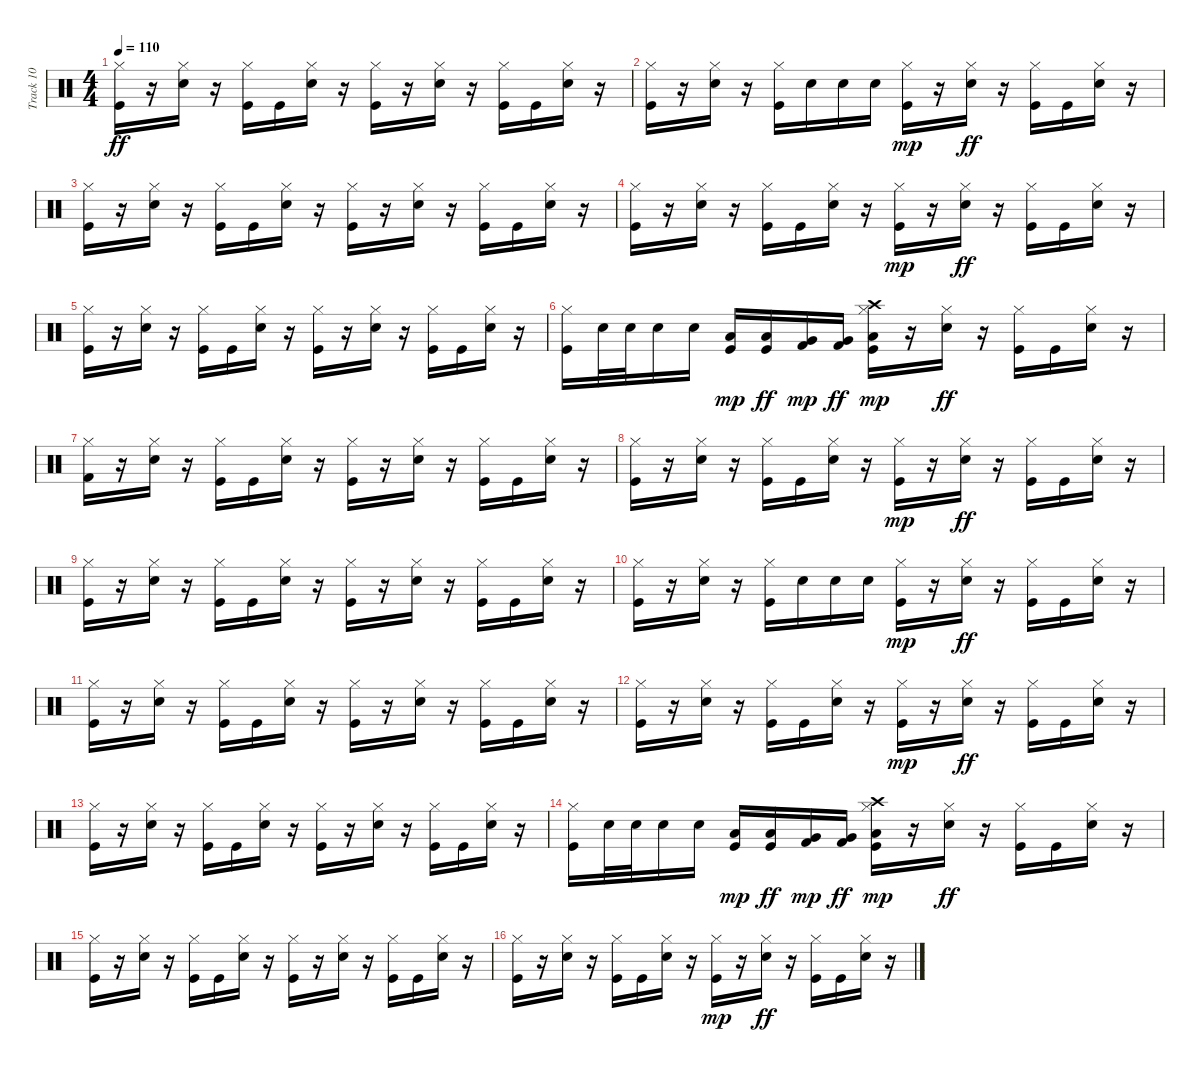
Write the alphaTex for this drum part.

\track ("Track 10" "Track 10") {instrument percussion}
\staff {score}
\articulation defaults
\ts (4 4)
\tempo 110
\clef neutral
\ks c
("Kick (hit)" "Hi-Hat (closed)").16{dy ff} r.16 ("Electric Snare (hit)" "Hi-Hat (closed)").16 r.16 ("Kick (hit)" "Hi-Hat (closed)").16 "Kick (hit)".16 ("Electric Snare (hit)" "Hi-Hat (closed)").16 r.16 ("Kick (hit)" "Hi-Hat (closed)").16 r.16 ("Electric Snare (hit)" "Hi-Hat (closed)").16 r.16 ("Kick (hit)" "Hi-Hat (closed)").16 "Kick (hit)".16 ("Electric Snare (hit)" "Hi-Hat (closed)").16 r.16 |
("Kick (hit)" "Hi-Hat (closed)").16 r.16 ("Electric Snare (hit)" "Hi-Hat (closed)").16 r.16 ("Kick (hit)" "Hi-Hat (closed)").16 "Electric Snare (hit)".16 "Electric Snare (hit)".16 "Electric Snare (hit)".16 ("Kick (hit)" "Hi-Hat (closed)").16{dy mp} r.16 ("Electric Snare (hit)" "Hi-Hat (closed)").16{dy ff} r.16 ("Kick (hit)" "Hi-Hat (closed)").16 "Kick (hit)".16 ("Electric Snare (hit)" "Hi-Hat (closed)").16 r.16 |
("Kick (hit)" "Hi-Hat (closed)").16 r.16 ("Electric Snare (hit)" "Hi-Hat (closed)").16 r.16 ("Kick (hit)" "Hi-Hat (closed)").16 "Kick (hit)".16 ("Electric Snare (hit)" "Hi-Hat (closed)").16 r.16 ("Kick (hit)" "Hi-Hat (closed)").16 r.16 ("Electric Snare (hit)" "Hi-Hat (closed)").16 r.16 ("Kick (hit)" "Hi-Hat (closed)").16 "Kick (hit)".16 ("Electric Snare (hit)" "Hi-Hat (closed)").16 r.16 |
("Kick (hit)" "Hi-Hat (closed)").16 r.16 ("Electric Snare (hit)" "Hi-Hat (closed)").16 r.16 ("Kick (hit)" "Hi-Hat (closed)").16 "Kick (hit)".16 ("Electric Snare (hit)" "Hi-Hat (closed)").16 r.16 ("Kick (hit)" "Hi-Hat (closed)").16{dy mp} r.16 ("Electric Snare (hit)" "Hi-Hat (closed)").16{dy ff} r.16 ("Kick (hit)" "Hi-Hat (closed)").16 "Kick (hit)".16 ("Electric Snare (hit)" "Hi-Hat (closed)").16 r.16 |
("Kick (hit)" "Hi-Hat (closed)").16 r.16 ("Electric Snare (hit)" "Hi-Hat (closed)").16 r.16 ("Kick (hit)" "Hi-Hat (closed)").16 "Kick (hit)".16 ("Electric Snare (hit)" "Hi-Hat (closed)").16 r.16 ("Kick (hit)" "Hi-Hat (closed)").16 r.16 ("Electric Snare (hit)" "Hi-Hat (closed)").16 r.16 ("Kick (hit)" "Hi-Hat (closed)").16 "Kick (hit)".16 ("Electric Snare (hit)" "Hi-Hat (closed)").16 r.16 |
("Kick (hit)" "Hi-Hat (closed)").16 "Electric Snare (hit)".32 "Electric Snare (hit)".32 "Electric Snare (hit)".16 "Electric Snare (hit)".16 ("Low Tom (hit)" "Kick (hit)").16{dy mp} ("Low Tom (hit)" "Kick (hit)").16{dy ff} ("Very Low Tom (hit)" "Kick (hit) 2").16{dy mp} ("Very Low Tom (hit)" "Kick (hit) 2").16{dy ff} ("Kick (hit)" "Crash high (hit)" "Low Floor Tom (hit)" "Hi-Hat (closed)").16{dy mp} r.16 ("Electric Snare (hit)" "Hi-Hat (closed)").16{dy ff} r.16 ("Hi-Hat (closed)" "Kick (hit)").16 "Kick (hit)".16 ("Electric Snare (hit)" "Hi-Hat (closed)").16 r.16 |
("Kick (hit) 2" "Hi-Hat (closed)").16 r.16 ("Electric Snare (hit)" "Hi-Hat (closed)").16 r.16 ("Kick (hit)" "Hi-Hat (closed)").16 "Kick (hit)".16 ("Electric Snare (hit)" "Hi-Hat (closed)").16 r.16 ("Kick (hit)" "Hi-Hat (closed)").16 r.16 ("Electric Snare (hit)" "Hi-Hat (closed)").16 r.16 ("Kick (hit)" "Hi-Hat (closed)").16 "Kick (hit)".16 ("Electric Snare (hit)" "Hi-Hat (closed)").16 r.16 |
("Kick (hit)" "Hi-Hat (closed)").16 r.16 ("Electric Snare (hit)" "Hi-Hat (closed)").16 r.16 ("Kick (hit)" "Hi-Hat (closed)").16 "Kick (hit)".16 ("Electric Snare (hit)" "Hi-Hat (closed)").16 r.16 ("Kick (hit)" "Hi-Hat (closed)").16{dy mp} r.16 ("Electric Snare (hit)" "Hi-Hat (closed)").16{dy ff} r.16 ("Kick (hit)" "Hi-Hat (closed)").16 "Kick (hit)".16 ("Electric Snare (hit)" "Hi-Hat (closed)").16 r.16 |
("Kick (hit)" "Hi-Hat (closed)").16 r.16 ("Electric Snare (hit)" "Hi-Hat (closed)").16 r.16 ("Kick (hit)" "Hi-Hat (closed)").16 "Kick (hit)".16 ("Electric Snare (hit)" "Hi-Hat (closed)").16 r.16 ("Kick (hit)" "Hi-Hat (closed)").16 r.16 ("Electric Snare (hit)" "Hi-Hat (closed)").16 r.16 ("Kick (hit)" "Hi-Hat (closed)").16 "Kick (hit)".16 ("Electric Snare (hit)" "Hi-Hat (closed)").16 r.16 |
("Kick (hit)" "Hi-Hat (closed)").16 r.16 ("Electric Snare (hit)" "Hi-Hat (closed)").16 r.16 ("Kick (hit)" "Hi-Hat (closed)").16 "Electric Snare (hit)".16 "Electric Snare (hit)".16 "Electric Snare (hit)".16 ("Kick (hit)" "Hi-Hat (closed)").16{dy mp} r.16 ("Electric Snare (hit)" "Hi-Hat (closed)").16{dy ff} r.16 ("Kick (hit)" "Hi-Hat (closed)").16 "Kick (hit)".16 ("Electric Snare (hit)" "Hi-Hat (closed)").16 r.16 |
("Kick (hit)" "Hi-Hat (closed)").16 r.16 ("Electric Snare (hit)" "Hi-Hat (closed)").16 r.16 ("Kick (hit)" "Hi-Hat (closed)").16 "Kick (hit)".16 ("Electric Snare (hit)" "Hi-Hat (closed)").16 r.16 ("Kick (hit)" "Hi-Hat (closed)").16 r.16 ("Electric Snare (hit)" "Hi-Hat (closed)").16 r.16 ("Kick (hit)" "Hi-Hat (closed)").16 "Kick (hit)".16 ("Electric Snare (hit)" "Hi-Hat (closed)").16 r.16 |
("Kick (hit)" "Hi-Hat (closed)").16 r.16 ("Electric Snare (hit)" "Hi-Hat (closed)").16 r.16 ("Kick (hit)" "Hi-Hat (closed)").16 "Kick (hit)".16 ("Electric Snare (hit)" "Hi-Hat (closed)").16 r.16 ("Kick (hit)" "Hi-Hat (closed)").16{dy mp} r.16 ("Electric Snare (hit)" "Hi-Hat (closed)").16{dy ff} r.16 ("Kick (hit)" "Hi-Hat (closed)").16 "Kick (hit)".16 ("Electric Snare (hit)" "Hi-Hat (closed)").16 r.16 |
("Kick (hit)" "Hi-Hat (closed)").16 r.16 ("Electric Snare (hit)" "Hi-Hat (closed)").16 r.16 ("Kick (hit)" "Hi-Hat (closed)").16 "Kick (hit)".16 ("Electric Snare (hit)" "Hi-Hat (closed)").16 r.16 ("Kick (hit)" "Hi-Hat (closed)").16 r.16 ("Electric Snare (hit)" "Hi-Hat (closed)").16 r.16 ("Kick (hit)" "Hi-Hat (closed)").16 "Kick (hit)".16 ("Electric Snare (hit)" "Hi-Hat (closed)").16 r.16 |
("Hi-Hat (closed)" "Kick (hit)").16 "Electric Snare (hit)".32 "Electric Snare (hit)".32 "Electric Snare (hit)".16 "Electric Snare (hit)".16 ("Low Tom (hit)" "Kick (hit)").16{dy mp} ("Low Tom (hit)" "Kick (hit)").16{dy ff} ("Very Low Tom (hit)" "Kick (hit) 2").16{dy mp} ("Very Low Tom (hit)" "Kick (hit) 2").16{dy ff} ("Kick (hit)" "Crash high (hit)" "Low Floor Tom (hit)" "Hi-Hat (closed)").16{dy mp} r.16 ("Electric Snare (hit)" "Hi-Hat (closed)").16{dy ff} r.16 ("Kick (hit)" "Hi-Hat (closed)").16 "Kick (hit)".16 ("Electric Snare (hit)" "Hi-Hat (closed)").16 r.16 |
("Kick (hit)" "Hi-Hat (closed)").16 r.16 ("Electric Snare (hit)" "Hi-Hat (closed)").16 r.16 ("Kick (hit)" "Hi-Hat (closed)").16 "Kick (hit)".16 ("Electric Snare (hit)" "Hi-Hat (closed)").16 r.16 ("Kick (hit)" "Hi-Hat (closed)").16 r.16 ("Electric Snare (hit)" "Hi-Hat (closed)").16 r.16 ("Kick (hit)" "Hi-Hat (closed)").16 "Kick (hit)".16 ("Electric Snare (hit)" "Hi-Hat (closed)").16 r.16 |
("Kick (hit)" "Hi-Hat (closed)").16 r.16 ("Electric Snare (hit)" "Hi-Hat (closed)").16 r.16 ("Kick (hit)" "Hi-Hat (closed)").16 "Kick (hit)".16 ("Electric Snare (hit)" "Hi-Hat (closed)").16 r.16 ("Kick (hit)" "Hi-Hat (closed)").16{dy mp} r.16 ("Electric Snare (hit)" "Hi-Hat (closed)").16{dy ff} r.16 ("Kick (hit)" "Hi-Hat (closed)").16 "Kick (hit)".16 ("Electric Snare (hit)" "Hi-Hat (closed)").16 r.16
